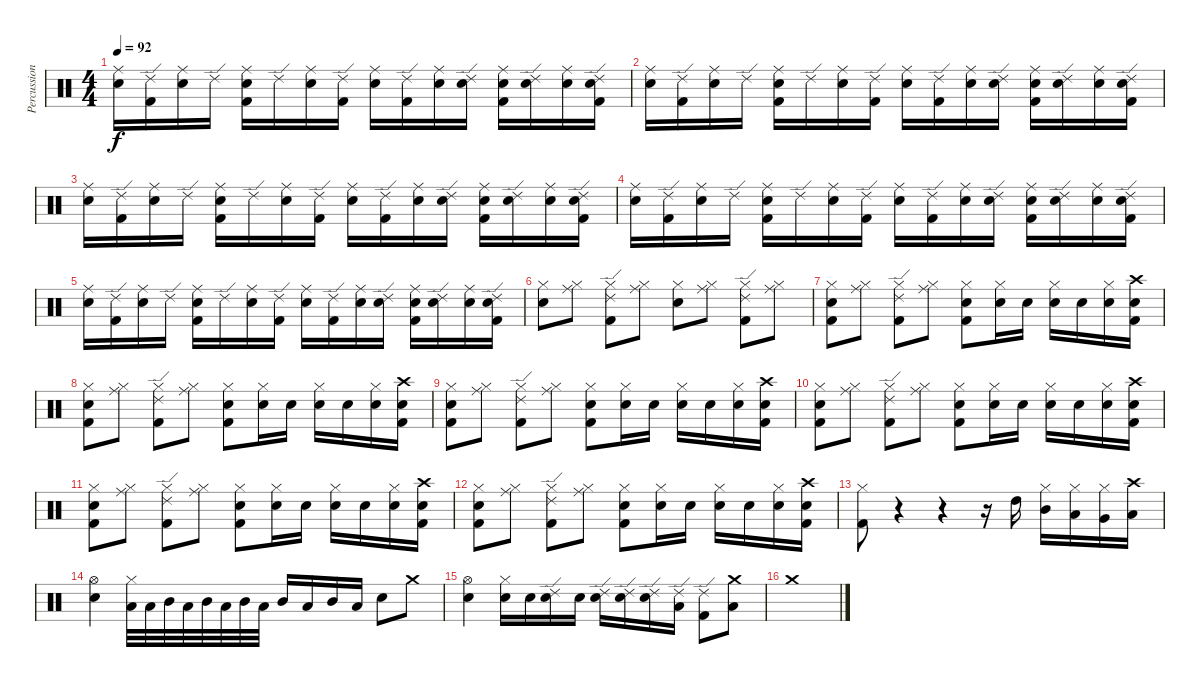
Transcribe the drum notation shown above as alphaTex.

\track ("Percussion" "Percussion") {instrument percussion}
\staff {score}
\articulation defaults
\ts (4 4)
\tempo 92
\clef neutral
\ks c
("Ride (middle)" "Snare (hit) 2").16{dy f} ("Ride (edge) 2" "Kick (hit) 2").16 ("Ride (middle)" "Snare (hit) 2").16 "Ride (edge) 2".16 ("Ride (middle)" "Snare (hit) 2" "Kick (hit) 2").16 "Ride (edge) 2".16 ("Ride (middle)" "Snare (hit) 2").16 ("Ride (edge) 2" "Kick (hit) 2").16 ("Ride (middle)" "Snare (hit) 2").16 ("Ride (edge) 2" "Kick (hit) 2").16 ("Ride (middle)" "Snare (hit) 2").16 ("Ride (edge) 2" "Snare (hit) 2").16 ("Ride (middle)" "Snare (hit) 2" "Kick (hit) 2").16 ("Ride (edge) 2" "Snare (hit) 2").16 ("Ride (middle)" "Snare (hit) 2").16 ("Ride (edge) 2" "Snare (hit) 2" "Kick (hit) 2").16 |
("Ride (middle)" "Snare (hit) 2").16 ("Ride (edge) 2" "Kick (hit) 2").16 ("Ride (middle)" "Snare (hit) 2").16 "Ride (edge) 2".16 ("Ride (middle)" "Snare (hit) 2" "Kick (hit) 2").16 "Ride (edge) 2".16 ("Ride (middle)" "Snare (hit) 2").16 ("Ride (edge) 2" "Kick (hit) 2").16 ("Ride (middle)" "Snare (hit) 2").16 ("Ride (edge) 2" "Kick (hit) 2").16 ("Ride (middle)" "Snare (hit) 2").16 ("Ride (edge) 2" "Snare (hit) 2").16 ("Ride (middle)" "Snare (hit) 2" "Kick (hit) 2").16 ("Ride (edge) 2" "Snare (hit) 2").16 ("Ride (middle)" "Snare (hit) 2").16 ("Ride (edge) 2" "Snare (hit) 2" "Kick (hit) 2").16 |
("Ride (middle)" "Snare (hit) 2").16 ("Ride (edge) 2" "Kick (hit) 2").16 ("Ride (middle)" "Snare (hit) 2").16 "Ride (edge) 2".16 ("Ride (middle)" "Snare (hit) 2" "Kick (hit) 2").16 "Ride (edge) 2".16 ("Ride (middle)" "Snare (hit) 2").16 ("Ride (edge) 2" "Kick (hit) 2").16 ("Ride (middle)" "Snare (hit) 2").16 ("Ride (edge) 2" "Kick (hit) 2").16 ("Ride (middle)" "Snare (hit) 2").16 ("Ride (edge) 2" "Snare (hit) 2").16 ("Ride (middle)" "Snare (hit) 2" "Kick (hit) 2").16 ("Ride (edge) 2" "Snare (hit) 2").16 ("Ride (middle)" "Snare (hit) 2").16 ("Ride (edge) 2" "Snare (hit) 2" "Kick (hit) 2").16 |
("Ride (middle)" "Snare (hit) 2").16 ("Ride (edge) 2" "Kick (hit) 2").16 ("Ride (middle)" "Snare (hit) 2").16 "Ride (edge) 2".16 ("Ride (middle)" "Snare (hit) 2" "Kick (hit) 2").16 "Ride (edge) 2".16 ("Ride (middle)" "Snare (hit) 2").16 ("Ride (edge) 2" "Kick (hit) 2").16 ("Ride (middle)" "Snare (hit) 2").16 ("Ride (edge) 2" "Kick (hit) 2").16 ("Ride (middle)" "Snare (hit) 2").16 ("Ride (edge) 2" "Snare (hit) 2").16 ("Ride (middle)" "Snare (hit) 2" "Kick (hit) 2").16 ("Ride (edge) 2" "Snare (hit) 2").16 ("Ride (middle)" "Snare (hit) 2").16 ("Ride (edge) 2" "Snare (hit) 2" "Kick (hit) 2").16 |
("Ride (middle)" "Snare (hit) 2").16 ("Ride (edge) 2" "Kick (hit) 2").16 ("Ride (middle)" "Snare (hit) 2").16 "Ride (edge) 2".16 ("Ride (middle)" "Snare (hit) 2" "Kick (hit) 2").16 "Ride (edge) 2".16 ("Ride (middle)" "Snare (hit) 2").16 ("Ride (edge) 2" "Kick (hit) 2").16 ("Ride (middle)" "Snare (hit) 2").16 ("Ride (edge) 2" "Kick (hit) 2").16 ("Ride (middle)" "Snare (hit) 2").16 ("Ride (edge) 2" "Snare (hit) 2").16 ("Ride (middle)" "Snare (hit) 2" "Kick (hit) 2").16 ("Ride (edge) 2" "Snare (hit) 2").16 ("Ride (middle)" "Snare (hit) 2").16 ("Ride (edge) 2" "Snare (hit) 2" "Kick (hit) 2").16 |
("Hi-Hat (closed)" "Snare (hit) 2").8 ("Ride (middle)" "Hi-Hat (closed)").8 ("Ride (edge) 2" "Hi-Hat (closed)" "Kick (hit) 2").8 ("Ride (middle)" "Hi-Hat (closed)").8 ("Hi-Hat (closed)" "Snare (hit) 2").8 ("Ride (middle)" "Hi-Hat (closed)").8 ("Ride (edge) 2" "Hi-Hat (closed)" "Kick (hit) 2").8 ("Ride (middle)" "Hi-Hat (closed)").8 |
("Hi-Hat (closed)" "Snare (hit) 2" "Kick (hit) 2").8 ("Ride (middle)" "Hi-Hat (closed)").8 ("Ride (edge) 2" "Hi-Hat (closed)" "Kick (hit) 2").8 ("Ride (middle)" "Hi-Hat (closed)").8 ("Hi-Hat (closed)" "Snare (hit) 2" "Kick (hit) 2").8 ("Hi-Hat (closed)" "Snare (hit) 2").16 "Snare (hit) 2".16 ("Hi-Hat (closed)" "Snare (hit) 2").16 "Snare (hit) 2".16 ("Hi-Hat (closed)" "Snare (hit) 2").16 ("Crash high (hit)" "Snare (hit) 2" "Kick (hit) 2").16 |
("Hi-Hat (closed)" "Snare (hit) 2" "Kick (hit) 2").8 ("Ride (middle)" "Hi-Hat (closed)").8 ("Ride (edge) 2" "Hi-Hat (closed)" "Kick (hit) 2").8 ("Ride (middle)" "Hi-Hat (closed)").8 ("Hi-Hat (closed)" "Snare (hit) 2" "Kick (hit) 2").8 ("Hi-Hat (closed)" "Snare (hit) 2").16 "Snare (hit) 2".16 ("Hi-Hat (closed)" "Snare (hit) 2").16 "Snare (hit) 2".16 ("Hi-Hat (closed)" "Snare (hit) 2").16 ("Crash high (hit)" "Snare (hit) 2" "Kick (hit) 2").16 |
("Hi-Hat (closed)" "Snare (hit) 2" "Kick (hit) 2").8 ("Ride (middle)" "Hi-Hat (closed)").8 ("Ride (edge) 2" "Hi-Hat (closed)" "Kick (hit) 2").8 ("Ride (middle)" "Hi-Hat (closed)").8 ("Hi-Hat (closed)" "Snare (hit) 2" "Kick (hit) 2").8 ("Hi-Hat (closed)" "Snare (hit) 2").16 "Snare (hit) 2".16 ("Hi-Hat (closed)" "Snare (hit) 2").16 "Snare (hit) 2".16 ("Hi-Hat (closed)" "Snare (hit) 2").16 ("Crash high (hit)" "Snare (hit) 2" "Kick (hit) 2").16 |
("Hi-Hat (closed)" "Snare (hit) 2" "Kick (hit) 2").8 ("Ride (middle)" "Hi-Hat (closed)").8 ("Ride (edge) 2" "Hi-Hat (closed)" "Kick (hit) 2").8 ("Ride (middle)" "Hi-Hat (closed)").8 ("Hi-Hat (closed)" "Snare (hit) 2" "Kick (hit) 2").8 ("Hi-Hat (closed)" "Snare (hit) 2").16 "Snare (hit) 2".16 ("Hi-Hat (closed)" "Snare (hit) 2").16 "Snare (hit) 2".16 ("Hi-Hat (closed)" "Snare (hit) 2").16 ("Crash high (hit)" "Snare (hit) 2" "Kick (hit) 2").16 |
("Hi-Hat (closed)" "Snare (hit) 2" "Kick (hit) 2").8 ("Ride (middle)" "Hi-Hat (closed)").8 ("Ride (edge) 2" "Hi-Hat (closed)" "Kick (hit) 2").8 ("Ride (middle)" "Hi-Hat (closed)").8 ("Hi-Hat (closed)" "Snare (hit) 2" "Kick (hit) 2").8 ("Hi-Hat (closed)" "Snare (hit) 2").16 "Snare (hit) 2".16 ("Hi-Hat (closed)" "Snare (hit) 2").16 "Snare (hit) 2".16 ("Hi-Hat (closed)" "Snare (hit) 2").16 ("Crash high (hit)" "Snare (hit) 2" "Kick (hit) 2").16 |
("Hi-Hat (closed)" "Snare (hit) 2" "Kick (hit) 2").8 ("Ride (middle)" "Hi-Hat (closed)").8 ("Ride (edge) 2" "Hi-Hat (closed)" "Kick (hit) 2").8 ("Ride (middle)" "Hi-Hat (closed)").8 ("Hi-Hat (closed)" "Snare (hit) 2" "Kick (hit) 2").8 ("Hi-Hat (closed)" "Snare (hit) 2").16 "Snare (hit) 2".16 ("Hi-Hat (closed)" "Snare (hit) 2").16 "Snare (hit) 2".16 ("Hi-Hat (closed)" "Snare (hit) 2").16 ("Crash high (hit)" "Snare (hit) 2" "Kick (hit) 2").16 |
("Hi-Hat (closed)" "Kick (hit) 2").8 r.4 r.4 r.16 "High Tom (hit)".16 ("Hi-Hat (closed)" "Mid Tom (hit)").16 ("Hi-Hat (closed)" "Low Tom (hit)").16 ("Hi-Hat (closed)" "Very Low Tom (hit)").16 ("Crash high (hit)" "Low Floor Tom (hit)").16 |
("Hi-Hat (open)" "Snare (hit) 2").4 ("Hi-Hat (closed)" "Low Floor Tom (hit)").32 "Low Tom (hit)".32 "Mid Tom (hit)".32 "Low Tom (hit)".32 "Mid Tom (hit)".32 "Low Tom (hit)".32 "Mid Tom (hit)".32 "Low Tom (hit)".32 "Mid Tom (hit)".16 "Low Tom (hit)".16 "Mid Tom (hit)".16 "Low Floor Tom (hit)".16 "Snare (hit) 2".8 "Crash medium (hit)".8 |
("Hi-Hat (open)" "Snare (hit) 2").4 ("Hi-Hat (closed)" "Snare (hit) 2").16 "Snare (hit) 2".16 ("Ride (edge) 2" "Snare (hit) 2").16 "Snare (hit) 2".16 ("Ride (edge) 2" "Snare (hit) 2").16 ("Ride (edge) 2" "Snare (hit) 2").16 ("Ride (edge) 2" "Snare (hit) 2").16 ("Ride (edge) 2" "Low Floor Tom (hit)").16 ("Ride (edge) 2" "Kick (hit) 2").8 ("Crash medium (hit)" "Low Floor Tom (hit)").8 |
"Crash medium (hit)".1
